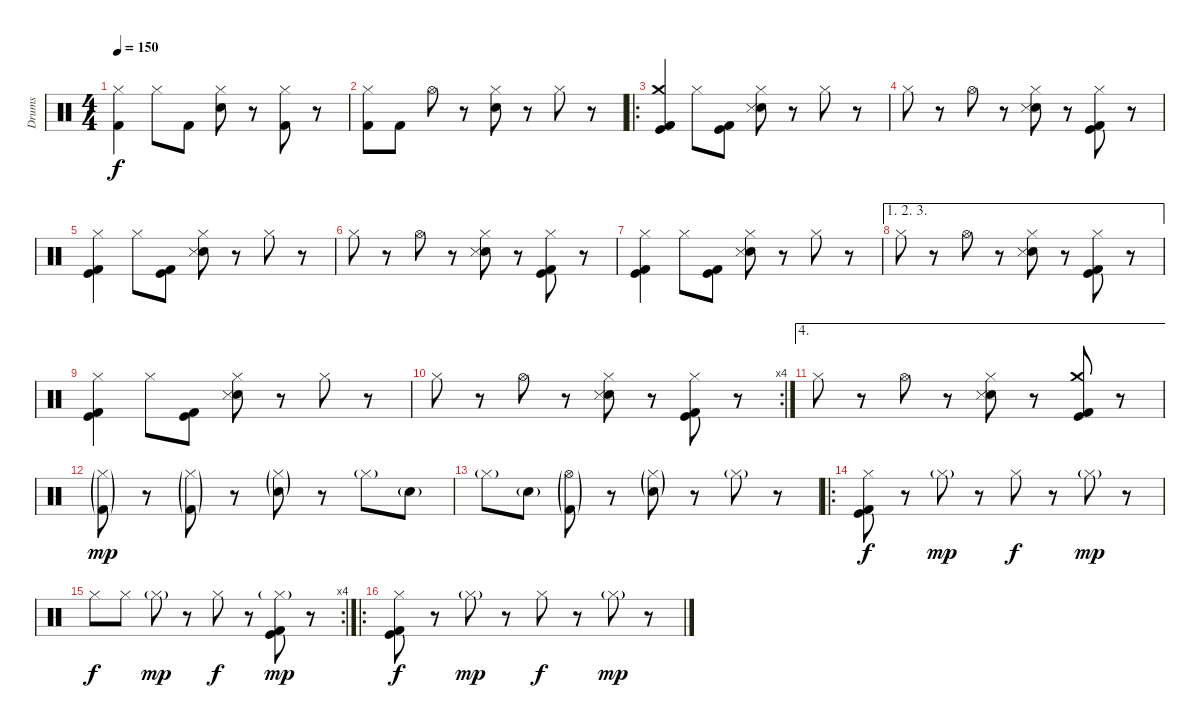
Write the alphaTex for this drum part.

\track ("Drums" "Drums") {instrument percussion}
\staff {score}
\articulation defaults
\ts (4 4)
\tempo 150
\clef neutral
\ks c
("Hi-Hat (closed)" "Kick (hit) 2").4{dy f} "Hi-Hat (closed)".8 "Kick (hit) 2".8 ("Hi-Hat (closed)" "Snare (hit) 2").8 r.8 ("Hi-Hat (closed)" "Kick (hit) 2").8 r.8 |
("Hi-Hat (closed)" "Kick (hit) 2").8 "Kick (hit) 2".8 "Hi-Hat (open)".8 r.8 ("Hi-Hat (closed)" "Snare (hit) 2").8 r.8 "Hi-Hat (closed)".8 r.8 |
\ro
("Crash medium (hit)" "Kick (hit)" "Kick (hit) 2").4 "Hi-Hat (closed)".8 ("Kick (hit)" "Kick (hit) 2").8 ("Hi-Hat (closed)" "Snare (hit) 2" "Snare (side stick) 3").8 r.8 "Hi-Hat (closed)".8 r.8 |
"Hi-Hat (closed)".8 r.8 "Hi-Hat (open)".8 r.8 ("Hi-Hat (closed)" "Snare (hit) 2" "Snare (side stick) 3").8 r.8 ("Hi-Hat (closed)" "Kick (hit)" "Kick (hit) 2").8 r.8 |
("Hi-Hat (closed)" "Kick (hit)" "Kick (hit) 2").4 "Hi-Hat (closed)".8 ("Kick (hit)" "Kick (hit) 2").8 ("Hi-Hat (closed)" "Snare (hit) 2" "Snare (side stick) 3").8 r.8 "Hi-Hat (closed)".8 r.8 |
"Hi-Hat (closed)".8 r.8 "Hi-Hat (open)".8 r.8 ("Hi-Hat (closed)" "Snare (hit) 2" "Snare (side stick) 3").8 r.8 ("Hi-Hat (closed)" "Kick (hit)" "Kick (hit) 2").8 r.8 |
("Hi-Hat (closed)" "Kick (hit)" "Kick (hit) 2").4 "Hi-Hat (closed)".8 ("Kick (hit)" "Kick (hit) 2").8 ("Hi-Hat (closed)" "Snare (hit) 2" "Snare (side stick) 3").8 r.8 "Hi-Hat (closed)".8 r.8 |
\ae (1 2 3)
"Hi-Hat (closed)".8 r.8 "Hi-Hat (open)".8 r.8 ("Hi-Hat (closed)" "Snare (hit) 2" "Snare (side stick) 3").8 r.8 ("Hi-Hat (closed)" "Kick (hit)" "Kick (hit) 2").8 r.8 |
("Hi-Hat (closed)" "Kick (hit)" "Kick (hit) 2").4 "Hi-Hat (closed)".8 ("Kick (hit)" "Kick (hit) 2").8 ("Hi-Hat (closed)" "Snare (hit) 2" "Snare (side stick) 3").8 r.8 "Hi-Hat (closed)".8 r.8 |
\rc 4 "Hi-Hat (closed)".8
r.8 "Hi-Hat (open)".8 r.8 ("Hi-Hat (closed)" "Snare (hit) 2" "Snare (side stick) 3").8 r.8 ("Hi-Hat (closed)" "Kick (hit)" "Kick (hit) 2").8 r.8 |
\ae 4 "Hi-Hat (closed)".8
r.8 "Hi-Hat (open)".8 r.8 ("Hi-Hat (closed)" "Snare (hit) 2" "Snare (side stick) 3").8 r.8 ("Crash medium (hit)" "Kick (hit)" "Kick (hit) 2").8 r.8 |
("Hi-Hat (closed)"{g} "Kick (hit) 2"{g}).8{dy mp} r.8 ("Hi-Hat (closed)"{g} "Kick (hit) 2"{g}).8 r.8 ("Hi-Hat (closed)"{g} "Snare (hit) 2"{g}).8 r.8 "Hi-Hat (closed)"{g}.8 "Snare (hit) 2"{g}.8 |
"Hi-Hat (closed)"{g}.8 "Snare (hit) 2"{g}.8 ("Hi-Hat (open)"{g} "Kick (hit) 2"{g}).8 r.8 ("Hi-Hat (closed)"{g} "Snare (hit) 2"{g}).8 r.8 "Hi-Hat (closed)"{g}.8 r.8 |
\ro
("Hi-Hat (closed)" "Kick (hit)" "Kick (hit) 2").8{dy f} r.8 "Hi-Hat (closed)"{g}.8{dy mp} r.8 "Hi-Hat (closed)".8{dy f} r.8 "Hi-Hat (closed)"{g}.8{dy mp} r.8 |
\rc 4 "Hi-Hat (closed)".8{dy f} "Hi-Hat (closed)".8 "Hi-Hat (closed)"{g}.8{dy mp}
r.8 "Hi-Hat (closed)".8{dy f} r.8 ("Hi-Hat (closed)"{g} "Kick (hit)" "Kick (hit) 2").8{dy mp} r.8 |
\ro
("Hi-Hat (closed)" "Kick (hit)" "Kick (hit) 2").8{dy f} r.8 "Hi-Hat (closed)"{g}.8{dy mp} r.8 "Hi-Hat (closed)".8{dy f} r.8 "Hi-Hat (closed)"{g}.8{dy mp} r.8
